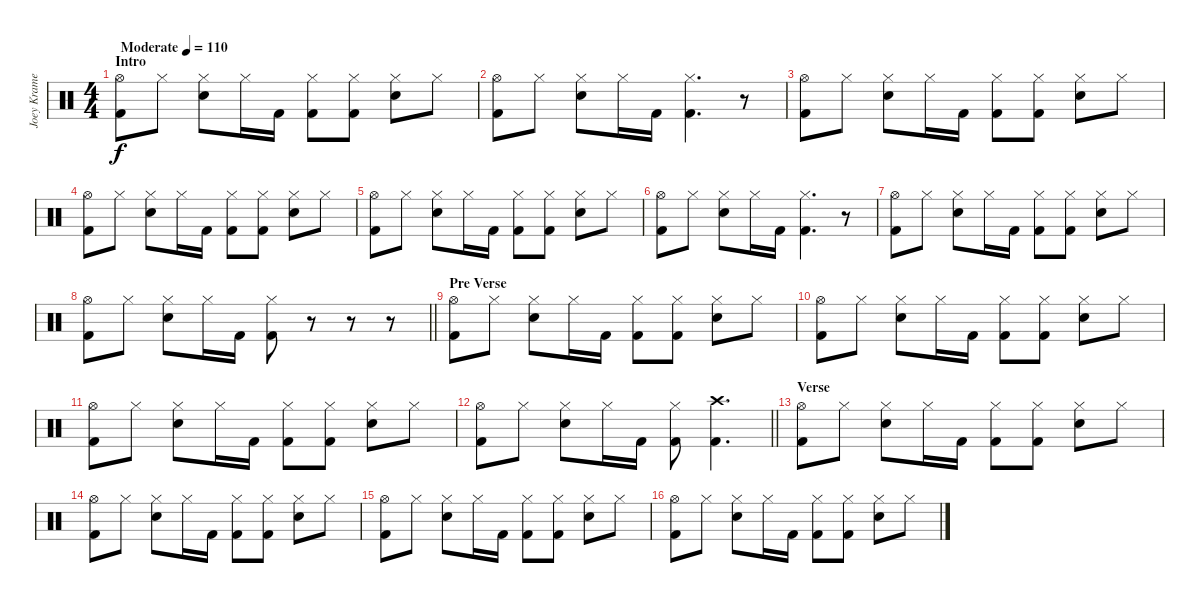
\track ("Joey Kramer - Drums" "Joey Krame") {instrument percussion}
\staff {score}
\articulation defaults
\ts (4 4)
\section ("" "Intro")
\tempo (110 "Moderate")
\clef neutral
\ks c
("Hi-Hat (open)" "Kick (hit) 2").8{dy f} "Hi-Hat (closed)".8 ("Hi-Hat (closed)" "Electric Snare (hit)").8 "Hi-Hat (closed)".16 "Kick (hit) 2".16 ("Hi-Hat (closed)" "Kick (hit) 2").8 ("Hi-Hat (closed)" "Kick (hit) 2").8 ("Hi-Hat (closed)" "Electric Snare (hit)").8 "Hi-Hat (closed)".8 |
("Hi-Hat (open)" "Kick (hit) 2").8 "Hi-Hat (closed)".8 ("Hi-Hat (closed)" "Electric Snare (hit)").8 "Hi-Hat (closed)".16 "Kick (hit) 2".16 ("Hi-Hat (closed)" "Kick (hit) 2").4{d} r.8 |
("Hi-Hat (open)" "Kick (hit) 2").8 "Hi-Hat (closed)".8 ("Hi-Hat (closed)" "Electric Snare (hit)").8 "Hi-Hat (closed)".16 "Kick (hit) 2".16 ("Hi-Hat (closed)" "Kick (hit) 2").8 ("Hi-Hat (closed)" "Kick (hit) 2").8 ("Hi-Hat (closed)" "Electric Snare (hit)").8 "Hi-Hat (closed)".8 |
("Hi-Hat (open)" "Kick (hit) 2").8 "Hi-Hat (closed)".8 ("Hi-Hat (closed)" "Electric Snare (hit)").8 "Hi-Hat (closed)".16 "Kick (hit) 2".16 ("Hi-Hat (closed)" "Kick (hit) 2").8 ("Hi-Hat (closed)" "Kick (hit) 2").8 ("Hi-Hat (closed)" "Electric Snare (hit)").8 "Hi-Hat (closed)".8 |
("Hi-Hat (open)" "Kick (hit) 2").8 "Hi-Hat (closed)".8 ("Hi-Hat (closed)" "Electric Snare (hit)").8 "Hi-Hat (closed)".16 "Kick (hit) 2".16 ("Hi-Hat (closed)" "Kick (hit) 2").8 ("Hi-Hat (closed)" "Kick (hit) 2").8 ("Hi-Hat (closed)" "Electric Snare (hit)").8 "Hi-Hat (closed)".8 |
("Hi-Hat (open)" "Kick (hit) 2").8 "Hi-Hat (closed)".8 ("Hi-Hat (closed)" "Electric Snare (hit)").8 "Hi-Hat (closed)".16 "Kick (hit) 2".16 ("Hi-Hat (closed)" "Kick (hit) 2").4{d} r.8 |
("Hi-Hat (open)" "Kick (hit) 2").8 "Hi-Hat (closed)".8 ("Hi-Hat (closed)" "Electric Snare (hit)").8 "Hi-Hat (closed)".16 "Kick (hit) 2".16 ("Hi-Hat (closed)" "Kick (hit) 2").8 ("Hi-Hat (closed)" "Kick (hit) 2").8 ("Hi-Hat (closed)" "Electric Snare (hit)").8 "Hi-Hat (closed)".8 |
\barLineRight lightlight
("Hi-Hat (open)" "Kick (hit) 2").8 "Hi-Hat (closed)".8 ("Hi-Hat (closed)" "Electric Snare (hit)").8 "Hi-Hat (closed)".16 "Kick (hit) 2".16 ("Hi-Hat (closed)" "Kick (hit) 2").8 r.8 r.8 r.8 |
\section ("" "Pre Verse")
("Hi-Hat (open)" "Kick (hit) 2").8 "Hi-Hat (closed)".8 ("Hi-Hat (closed)" "Electric Snare (hit)").8 "Hi-Hat (closed)".16 "Kick (hit) 2".16 ("Hi-Hat (closed)" "Kick (hit) 2").8 ("Hi-Hat (closed)" "Kick (hit) 2").8 ("Hi-Hat (closed)" "Electric Snare (hit)").8 "Hi-Hat (closed)".8 |
("Hi-Hat (open)" "Kick (hit) 2").8 "Hi-Hat (closed)".8 ("Hi-Hat (closed)" "Electric Snare (hit)").8 "Hi-Hat (closed)".16 "Kick (hit) 2".16 ("Hi-Hat (closed)" "Kick (hit) 2").8 ("Hi-Hat (closed)" "Kick (hit) 2").8 ("Hi-Hat (closed)" "Electric Snare (hit)").8 "Hi-Hat (closed)".8 |
("Hi-Hat (open)" "Kick (hit) 2").8 "Hi-Hat (closed)".8 ("Hi-Hat (closed)" "Electric Snare (hit)").8 "Hi-Hat (closed)".16 "Kick (hit) 2".16 ("Hi-Hat (closed)" "Kick (hit) 2").8 ("Hi-Hat (closed)" "Kick (hit) 2").8 ("Hi-Hat (closed)" "Electric Snare (hit)").8 "Hi-Hat (closed)".8 |
\barLineRight lightlight
("Hi-Hat (open)" "Kick (hit) 2").8 "Hi-Hat (closed)".8 ("Hi-Hat (closed)" "Electric Snare (hit)").8 "Hi-Hat (closed)".16 "Kick (hit) 2".16 ("Hi-Hat (closed)" "Kick (hit) 2").8 ("Crash high (hit)" "Kick (hit) 2").4{d} |
\section ("" "Verse")
("Hi-Hat (open)" "Kick (hit) 2").8 "Hi-Hat (closed)".8 ("Hi-Hat (closed)" "Electric Snare (hit)").8 "Hi-Hat (closed)".16 "Kick (hit) 2".16 ("Hi-Hat (closed)" "Kick (hit) 2").8 ("Hi-Hat (closed)" "Kick (hit) 2").8 ("Hi-Hat (closed)" "Electric Snare (hit)").8 "Hi-Hat (closed)".8 |
("Hi-Hat (open)" "Kick (hit) 2").8 "Hi-Hat (closed)".8 ("Hi-Hat (closed)" "Electric Snare (hit)").8 "Hi-Hat (closed)".16 "Kick (hit) 2".16 ("Hi-Hat (closed)" "Kick (hit) 2").8 ("Hi-Hat (closed)" "Kick (hit) 2").8 ("Hi-Hat (closed)" "Electric Snare (hit)").8 "Hi-Hat (closed)".8 |
("Hi-Hat (open)" "Kick (hit) 2").8 "Hi-Hat (closed)".8 ("Hi-Hat (closed)" "Electric Snare (hit)").8 "Hi-Hat (closed)".16 "Kick (hit) 2".16 ("Hi-Hat (closed)" "Kick (hit) 2").8 ("Hi-Hat (closed)" "Kick (hit) 2").8 ("Hi-Hat (closed)" "Electric Snare (hit)").8 "Hi-Hat (closed)".8 |
("Hi-Hat (open)" "Kick (hit) 2").8 "Hi-Hat (closed)".8 ("Hi-Hat (closed)" "Electric Snare (hit)").8 "Hi-Hat (closed)".16 "Kick (hit) 2".16 ("Hi-Hat (closed)" "Kick (hit) 2").8 ("Hi-Hat (closed)" "Kick (hit) 2").8 ("Hi-Hat (closed)" "Electric Snare (hit)").8 "Hi-Hat (closed)".8
